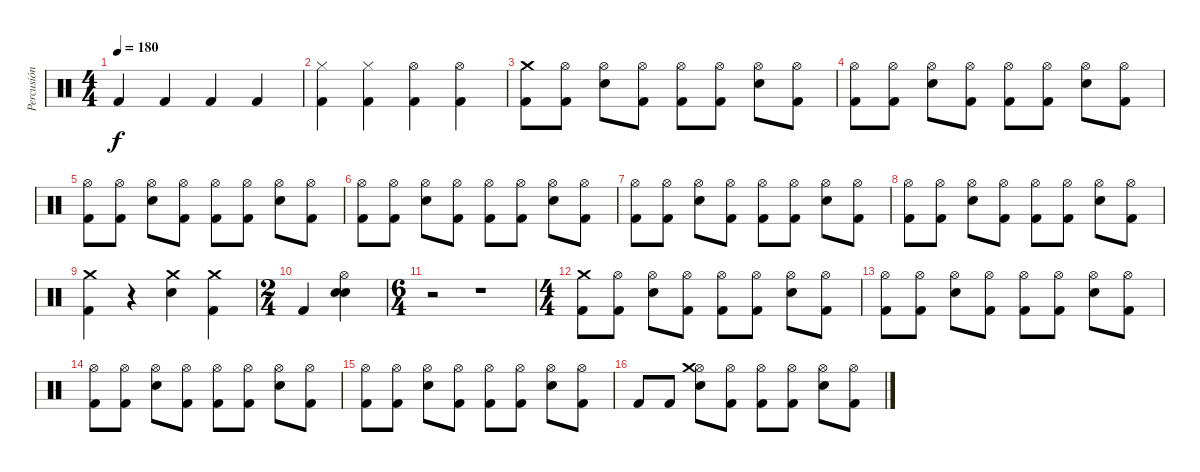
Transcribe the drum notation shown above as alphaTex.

\track ("Percusión" "Percusión") {instrument percussion}
\staff {score}
\articulation defaults
\ts (4 4)
\tempo 180
\clef neutral
\ks c "Kick (hit) 2".4{dy f} "Kick (hit) 2".4 "Kick (hit) 2".4 "Kick (hit) 2".4
|
("Kick (hit) 2" "Hi-Hat (closed)").4 ("Kick (hit) 2" "Hi-Hat (closed)").4 ("Kick (hit) 2" "Hi-Hat (open)").4 ("Kick (hit) 2" "Hi-Hat (open)").4 |
("Kick (hit) 2" "Crash medium (hit)").8 ("Kick (hit) 2" "Hi-Hat (open)").8 ("Electric Snare (hit)" "Hi-Hat (open)").8 ("Kick (hit) 2" "Hi-Hat (open)").8 ("Kick (hit) 2" "Hi-Hat (open)").8 ("Kick (hit) 2" "Hi-Hat (open)").8 ("Electric Snare (hit)" "Hi-Hat (open)").8 ("Kick (hit) 2" "Hi-Hat (open)").8 |
("Kick (hit) 2" "Hi-Hat (open)").8 ("Kick (hit) 2" "Hi-Hat (open)").8 ("Electric Snare (hit)" "Hi-Hat (open)").8 ("Kick (hit) 2" "Hi-Hat (open)").8 ("Kick (hit) 2" "Hi-Hat (open)").8 ("Kick (hit) 2" "Hi-Hat (open)").8 ("Electric Snare (hit)" "Hi-Hat (open)").8 ("Kick (hit) 2" "Hi-Hat (open)").8 |
("Kick (hit) 2" "Hi-Hat (open)").8 ("Kick (hit) 2" "Hi-Hat (open)").8 ("Electric Snare (hit)" "Hi-Hat (open)").8 ("Kick (hit) 2" "Hi-Hat (open)").8 ("Kick (hit) 2" "Hi-Hat (open)").8 ("Kick (hit) 2" "Hi-Hat (open)").8 ("Electric Snare (hit)" "Hi-Hat (open)").8 ("Kick (hit) 2" "Hi-Hat (open)").8 |
("Kick (hit) 2" "Hi-Hat (open)").8 ("Kick (hit) 2" "Hi-Hat (open)").8 ("Electric Snare (hit)" "Hi-Hat (open)").8 ("Kick (hit) 2" "Hi-Hat (open)").8 ("Kick (hit) 2" "Hi-Hat (open)").8 ("Kick (hit) 2" "Hi-Hat (open)").8 ("Electric Snare (hit)" "Hi-Hat (open)").8 ("Kick (hit) 2" "Hi-Hat (open)").8 |
("Kick (hit) 2" "Hi-Hat (open)").8 ("Kick (hit) 2" "Hi-Hat (open)").8 ("Electric Snare (hit)" "Hi-Hat (open)").8 ("Kick (hit) 2" "Hi-Hat (open)").8 ("Kick (hit) 2" "Hi-Hat (open)").8 ("Kick (hit) 2" "Hi-Hat (open)").8 ("Electric Snare (hit)" "Hi-Hat (open)").8 ("Kick (hit) 2" "Hi-Hat (open)").8 |
("Kick (hit) 2" "Hi-Hat (open)").8 ("Kick (hit) 2" "Hi-Hat (open)").8 ("Electric Snare (hit)" "Hi-Hat (open)").8 ("Kick (hit) 2" "Hi-Hat (open)").8 ("Kick (hit) 2" "Hi-Hat (open)").8 ("Kick (hit) 2" "Hi-Hat (open)").8 ("Electric Snare (hit)" "Hi-Hat (open)").8 ("Kick (hit) 2" "Hi-Hat (open)").8 |
("Kick (hit) 2" "Crash medium (hit)").4 r.4 ("Electric Snare (hit)" "Crash medium (hit)").4 ("Kick (hit) 2" "Crash medium (hit)").4 |
\ts (2 4)
"Kick (hit) 2".4 ("Electric Snare (hit)" "Electric Snare (hit)" "Hi-Hat (open)").4 |
\ts (6 4)
r.2 r.1 |
\ts (4 4)
("Kick (hit) 2" "Crash medium (hit)").8 ("Kick (hit) 2" "Hi-Hat (open)").8 ("Electric Snare (hit)" "Hi-Hat (open)").8 ("Kick (hit) 2" "Hi-Hat (open)").8 ("Kick (hit) 2" "Hi-Hat (open)").8 ("Kick (hit) 2" "Hi-Hat (open)").8 ("Electric Snare (hit)" "Hi-Hat (open)").8 ("Kick (hit) 2" "Hi-Hat (open)").8 |
("Kick (hit) 2" "Hi-Hat (open)").8 ("Kick (hit) 2" "Hi-Hat (open)").8 ("Electric Snare (hit)" "Hi-Hat (open)").8 ("Kick (hit) 2" "Hi-Hat (open)").8 ("Kick (hit) 2" "Hi-Hat (open)").8 ("Kick (hit) 2" "Hi-Hat (open)").8 ("Electric Snare (hit)" "Hi-Hat (open)").8 ("Kick (hit) 2" "Hi-Hat (open)").8 |
("Kick (hit) 2" "Hi-Hat (open)").8 ("Kick (hit) 2" "Hi-Hat (open)").8 ("Electric Snare (hit)" "Hi-Hat (open)").8 ("Kick (hit) 2" "Hi-Hat (open)").8 ("Kick (hit) 2" "Hi-Hat (open)").8 ("Kick (hit) 2" "Hi-Hat (open)").8 ("Electric Snare (hit)" "Hi-Hat (open)").8 ("Kick (hit) 2" "Hi-Hat (open)").8 |
("Kick (hit) 2" "Hi-Hat (open)").8 ("Kick (hit) 2" "Hi-Hat (open)").8 ("Electric Snare (hit)" "Hi-Hat (open)").8 ("Kick (hit) 2" "Hi-Hat (open)").8 ("Kick (hit) 2" "Hi-Hat (open)").8 ("Kick (hit) 2" "Hi-Hat (open)").8 ("Electric Snare (hit)" "Hi-Hat (open)").8 ("Kick (hit) 2" "Hi-Hat (open)").8 |
"Kick (hit) 2".8 "Kick (hit) 2".8 ("Electric Snare (hit)" "Hi-Hat (open)" "Crash medium (hit)").8 ("Kick (hit) 2" "Hi-Hat (open)").8 ("Kick (hit) 2" "Hi-Hat (open)").8 ("Kick (hit) 2" "Hi-Hat (open)").8 ("Electric Snare (hit)" "Hi-Hat (open)").8 ("Kick (hit) 2" "Hi-Hat (open)").8
